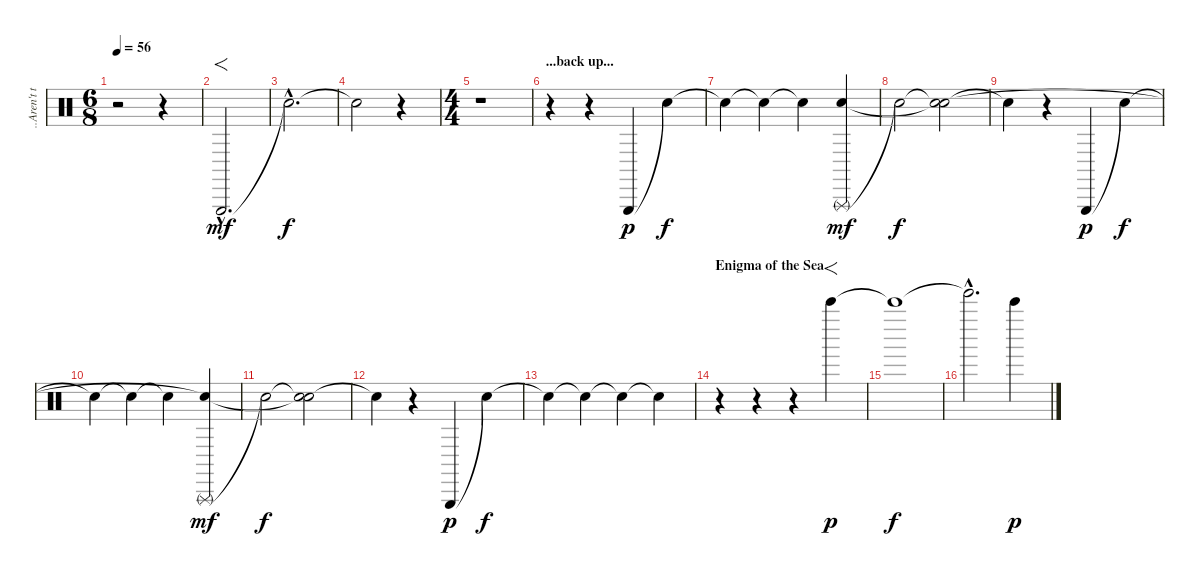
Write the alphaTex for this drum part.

\track ("..Aren't they?.." "..Aren't t") {instrument percussion}
\staff {score}
\articulation defaults
\ts (6 8)
\tempo 56
\clef neutral
\ks c
r.2{dy f} r.4 |
"Triangle (hit)"{hac}.2{f d dy mf} |
"Snare (hit)"{hac t}.2{d dy f} |
"Snare (hit)"{t}.2 r.4 |
\ts (4 4)
r.1 |
\section ("" "...back up...")
r.4 r.4 "Triangle (hit)".4{dy p} "Snare (hit)"{t}.4{dy f} |
"Snare (hit)"{t}.4 "Snare (hit)"{t}.4 "Snare (hit)"{t}.4 ("Triangle (rnute)" "Snare (hit)").4{dy mf} |
"Snare (hit)"{t}.2{dy f} ("Snare (hit)"{t} "Snare (hit)"{t}).2 |
"Snare (hit)"{t}.4 r.4 "Triangle (hit)".4{dy p} "Snare (hit)"{t}.4{dy f} |
"Snare (hit)"{t}.4 "Snare (hit)"{t}.4 "Snare (hit)"{t}.4 ("Triangle (rnute)" "Snare (hit)"{t}).4{dy mf} |
"Snare (hit)"{t}.2{dy f} ("Snare (hit)"{t} "Snare (hit)"{t}).2 |
"Snare (hit)"{t}.4 r.4 "Triangle (hit)".4{dy p} "Snare (hit)"{t}.4{dy f} |
"Snare (hit)"{t}.4 "Snare (hit)"{t}.4 "Snare (hit)"{t}.4 "Snare (hit)"{t}.4 |
\section ("" "Enigma of the Sea")
r.4 r.4 r.4 "Bell Tree (hit)".4{f dy p} |
"Bell Tree (hit)"{t}.1{dy f} |
"Tinkle Bell (hit)"{hac t}.2{d} "Bell Tree (hit)".4{dy p}
